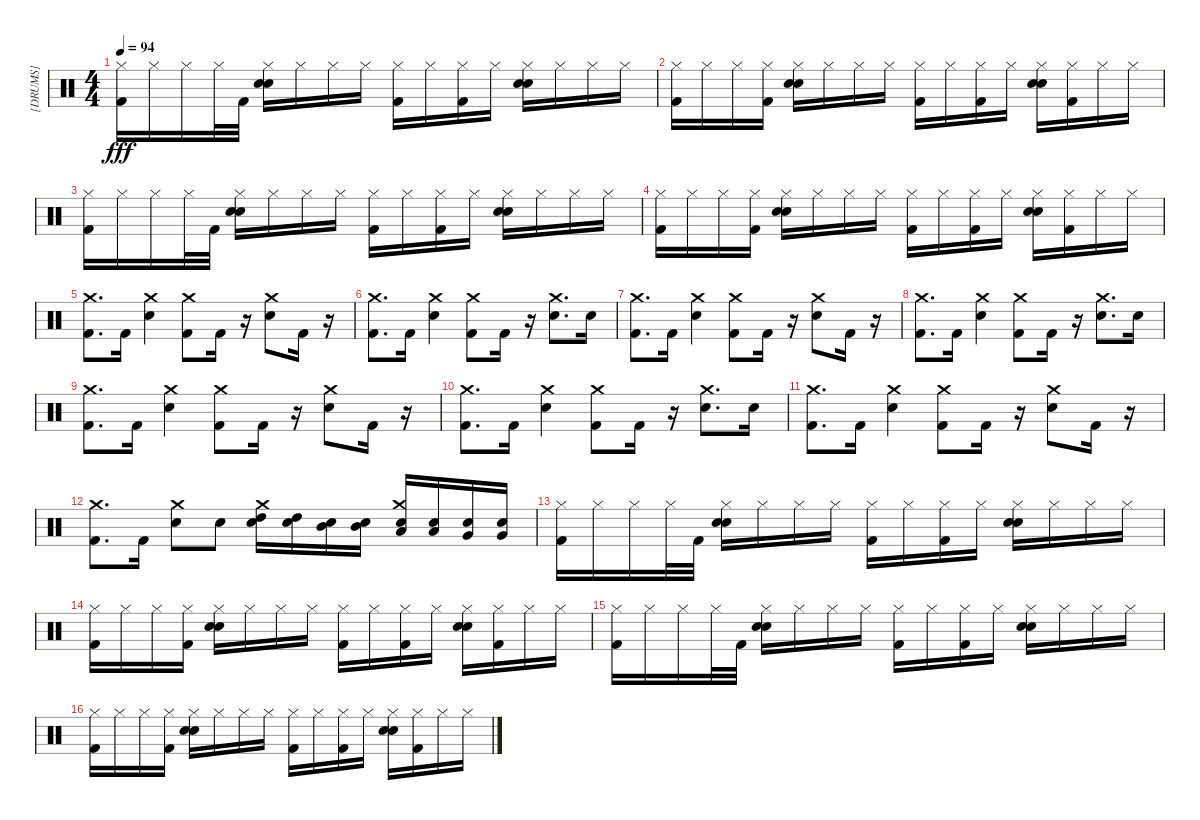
\track ("[DRUMS]" "[DRUMS]") {instrument percussion}
\staff {score}
\articulation defaults
\ts (4 4)
\tempo 94
\clef neutral
\ks c
("Hi-Hat (closed)" "Kick (hit) 2").16{dy fff} "Hi-Hat (closed)".16 "Hi-Hat (closed)".16 "Hi-Hat (closed)".32 "Kick (hit) 2".32 ("Hi-Hat (closed)" "Snare (hit) 2" "Electric Snare (hit)").16 "Hi-Hat (closed)".16 "Hi-Hat (closed)".16 "Hi-Hat (closed)".16 ("Hi-Hat (closed)" "Kick (hit) 2").16 "Hi-Hat (closed)".16 ("Hi-Hat (closed)" "Kick (hit) 2").16 "Hi-Hat (closed)".16 ("Hi-Hat (closed)" "Snare (hit) 2" "Electric Snare (hit)").16 "Hi-Hat (closed)".16 "Hi-Hat (closed)".16 "Hi-Hat (closed)".16 |
("Kick (hit) 2" "Hi-Hat (closed)").16 "Hi-Hat (closed)".16 "Hi-Hat (closed)".16 ("Kick (hit) 2" "Hi-Hat (closed)").16 ("Snare (hit) 2" "Electric Snare (hit)" "Hi-Hat (closed)").16 "Hi-Hat (closed)".16 "Hi-Hat (closed)".16 "Hi-Hat (closed)".16 ("Kick (hit) 2" "Hi-Hat (closed)").16 "Hi-Hat (closed)".16 ("Kick (hit) 2" "Hi-Hat (closed)").16 "Hi-Hat (closed)".16 ("Snare (hit) 2" "Electric Snare (hit)" "Hi-Hat (closed)").16 ("Kick (hit) 2" "Hi-Hat (closed)").16 "Hi-Hat (closed)".16 "Hi-Hat (closed)".16 |
("Hi-Hat (closed)" "Kick (hit) 2").16 "Hi-Hat (closed)".16 "Hi-Hat (closed)".16 "Hi-Hat (closed)".32 "Kick (hit) 2".32 ("Hi-Hat (closed)" "Snare (hit) 2" "Electric Snare (hit)").16 "Hi-Hat (closed)".16 "Hi-Hat (closed)".16 "Hi-Hat (closed)".16 ("Hi-Hat (closed)" "Kick (hit) 2").16 "Hi-Hat (closed)".16 ("Hi-Hat (closed)" "Kick (hit) 2").16 "Hi-Hat (closed)".16 ("Hi-Hat (closed)" "Snare (hit) 2" "Electric Snare (hit)").16 "Hi-Hat (closed)".16 "Hi-Hat (closed)".16 "Hi-Hat (closed)".16 |
("Kick (hit) 2" "Hi-Hat (closed)").16 "Hi-Hat (closed)".16 "Hi-Hat (closed)".16 ("Kick (hit) 2" "Hi-Hat (closed)").16 ("Snare (hit) 2" "Electric Snare (hit)" "Hi-Hat (closed)").16 "Hi-Hat (closed)".16 "Hi-Hat (closed)".16 "Hi-Hat (closed)".16 ("Kick (hit) 2" "Hi-Hat (closed)").16 "Hi-Hat (closed)".16 ("Kick (hit) 2" "Hi-Hat (closed)").16 "Hi-Hat (closed)".16 ("Snare (hit) 2" "Electric Snare (hit)" "Hi-Hat (closed)").16 ("Kick (hit) 2" "Hi-Hat (closed)").16 "Hi-Hat (closed)".16 "Hi-Hat (closed)".16 |
("Crash medium (hit)" "Kick (hit) 2").8{d} "Kick (hit) 2".16 ("Crash medium (hit)" "Electric Snare (hit)").4 ("Crash medium (hit)" "Kick (hit) 2").8 "Kick (hit) 2".16 r.16 ("Crash medium (hit)" "Electric Snare (hit)").8 "Kick (hit) 2".16 r.16 |
("Crash medium (hit)" "Kick (hit) 2").8{d} "Kick (hit) 2".16 ("Crash medium (hit)" "Electric Snare (hit)").4 ("Crash medium (hit)" "Kick (hit) 2").8 "Kick (hit) 2".16 r.16 ("Crash medium (hit)" "Electric Snare (hit)").8{d} "Electric Snare (hit)".16 |
("Crash medium (hit)" "Kick (hit) 2").8{d} "Kick (hit) 2".16 ("Crash medium (hit)" "Electric Snare (hit)").4 ("Crash medium (hit)" "Kick (hit) 2").8 "Kick (hit) 2".16 r.16 ("Crash medium (hit)" "Electric Snare (hit)").8 "Kick (hit) 2".16 r.16 |
("Crash medium (hit)" "Kick (hit) 2").8{d} "Kick (hit) 2".16 ("Crash medium (hit)" "Electric Snare (hit)").4 ("Crash medium (hit)" "Kick (hit) 2").8 "Kick (hit) 2".16 r.16 ("Crash medium (hit)" "Electric Snare (hit)").8{d} "Electric Snare (hit)".16 |
("Crash medium (hit)" "Kick (hit) 2").8{d} "Kick (hit) 2".16 ("Crash medium (hit)" "Electric Snare (hit)").4 ("Crash medium (hit)" "Kick (hit) 2").8 "Kick (hit) 2".16 r.16 ("Crash medium (hit)" "Electric Snare (hit)").8 "Kick (hit) 2".16 r.16 |
("Crash medium (hit)" "Kick (hit) 2").8{d} "Kick (hit) 2".16 ("Crash medium (hit)" "Electric Snare (hit)").4 ("Crash medium (hit)" "Kick (hit) 2").8 "Kick (hit) 2".16 r.16 ("Crash medium (hit)" "Electric Snare (hit)").8{d} "Electric Snare (hit)".16 |
("Crash medium (hit)" "Kick (hit) 2").8{d} "Kick (hit) 2".16 ("Crash medium (hit)" "Electric Snare (hit)").4 ("Crash medium (hit)" "Kick (hit) 2").8 "Kick (hit) 2".16 r.16 ("Crash medium (hit)" "Electric Snare (hit)").8 "Kick (hit) 2".16 r.16 |
("Crash medium (hit)" "Kick (hit) 2").8{d} "Kick (hit) 2".16 ("Crash medium (hit)" "Electric Snare (hit)").8 "Electric Snare (hit)".8 ("High Tom (hit)" "Electric Snare (hit)" "Crash medium (hit)").16 ("High Tom (hit)" "Electric Snare (hit)").16 ("Mid Tom (hit)" "Electric Snare (hit)").16 ("Mid Tom (hit)" "Electric Snare (hit)").16 ("Low Tom (hit)" "Electric Snare (hit)" "Crash medium (hit)").16 ("Low Tom (hit)" "Electric Snare (hit)").16 ("Very Low Tom (hit)" "Electric Snare (hit)").16 ("Very Low Tom (hit)" "Electric Snare (hit)").16 |
("Hi-Hat (closed)" "Kick (hit) 2").16 "Hi-Hat (closed)".16 "Hi-Hat (closed)".16 "Hi-Hat (closed)".32 "Kick (hit) 2".32 ("Hi-Hat (closed)" "Snare (hit) 2" "Electric Snare (hit)").16 "Hi-Hat (closed)".16 "Hi-Hat (closed)".16 "Hi-Hat (closed)".16 ("Hi-Hat (closed)" "Kick (hit) 2").16 "Hi-Hat (closed)".16 ("Hi-Hat (closed)" "Kick (hit) 2").16 "Hi-Hat (closed)".16 ("Hi-Hat (closed)" "Snare (hit) 2" "Electric Snare (hit)").16 "Hi-Hat (closed)".16 "Hi-Hat (closed)".16 "Hi-Hat (closed)".16 |
("Kick (hit) 2" "Hi-Hat (closed)").16 "Hi-Hat (closed)".16 "Hi-Hat (closed)".16 ("Kick (hit) 2" "Hi-Hat (closed)").16 ("Snare (hit) 2" "Electric Snare (hit)" "Hi-Hat (closed)").16 "Hi-Hat (closed)".16 "Hi-Hat (closed)".16 "Hi-Hat (closed)".16 ("Kick (hit) 2" "Hi-Hat (closed)").16 "Hi-Hat (closed)".16 ("Kick (hit) 2" "Hi-Hat (closed)").16 "Hi-Hat (closed)".16 ("Snare (hit) 2" "Electric Snare (hit)" "Hi-Hat (closed)").16 ("Kick (hit) 2" "Hi-Hat (closed)").16 "Hi-Hat (closed)".16 "Hi-Hat (closed)".16 |
("Hi-Hat (closed)" "Kick (hit) 2").16 "Hi-Hat (closed)".16 "Hi-Hat (closed)".16 "Hi-Hat (closed)".32 "Kick (hit) 2".32 ("Hi-Hat (closed)" "Snare (hit) 2" "Electric Snare (hit)").16 "Hi-Hat (closed)".16 "Hi-Hat (closed)".16 "Hi-Hat (closed)".16 ("Hi-Hat (closed)" "Kick (hit) 2").16 "Hi-Hat (closed)".16 ("Hi-Hat (closed)" "Kick (hit) 2").16 "Hi-Hat (closed)".16 ("Hi-Hat (closed)" "Snare (hit) 2" "Electric Snare (hit)").16 "Hi-Hat (closed)".16 "Hi-Hat (closed)".16 "Hi-Hat (closed)".16 |
("Kick (hit) 2" "Hi-Hat (closed)").16 "Hi-Hat (closed)".16 "Hi-Hat (closed)".16 ("Kick (hit) 2" "Hi-Hat (closed)").16 ("Snare (hit) 2" "Electric Snare (hit)" "Hi-Hat (closed)").16 "Hi-Hat (closed)".16 "Hi-Hat (closed)".16 "Hi-Hat (closed)".16 ("Kick (hit) 2" "Hi-Hat (closed)").16 "Hi-Hat (closed)".16 ("Kick (hit) 2" "Hi-Hat (closed)").16 "Hi-Hat (closed)".16 ("Snare (hit) 2" "Electric Snare (hit)" "Hi-Hat (closed)").16 ("Kick (hit) 2" "Hi-Hat (closed)").16 "Hi-Hat (closed)".16 "Hi-Hat (closed)".16
